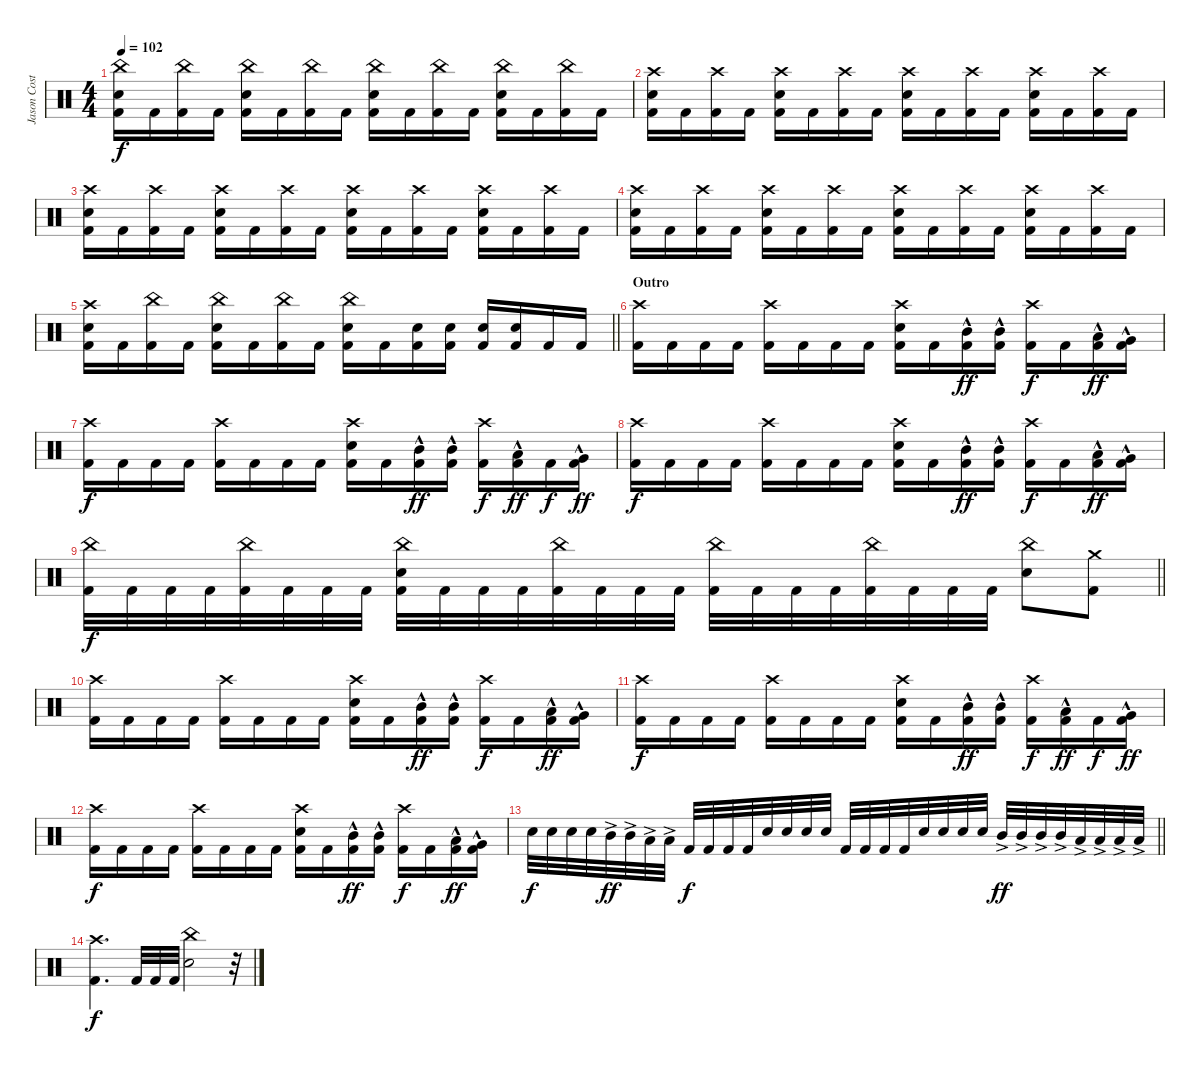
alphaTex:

\track ("Jason Costa" "Jason Cost") {instrument percussion}
\staff {score}
\articulation defaults
\ts (4 4)
\tempo 102
\clef neutral
\ks c
("China (hit)" "Snare (hit) 2" "Kick (hit) 2").16{dy f} "Kick (hit) 2".16 ("China (hit)" "Kick (hit) 2").16 "Kick (hit) 2".16 ("China (hit)" "Snare (hit) 2" "Kick (hit) 2").16 "Kick (hit) 2".16 ("China (hit)" "Kick (hit) 2").16 "Kick (hit) 2".16 ("China (hit)" "Snare (hit) 2" "Kick (hit) 2").16 "Kick (hit) 2".16 ("China (hit)" "Kick (hit) 2").16 "Kick (hit) 2".16 ("China (hit)" "Snare (hit) 2" "Kick (hit) 2").16 "Kick (hit) 2".16 ("China (hit)" "Kick (hit) 2").16 "Kick (hit) 2".16 |
("Crash high (hit)" "Snare (hit) 2" "Kick (hit) 2").16 "Kick (hit) 2".16 ("Crash high (hit)" "Kick (hit) 2").16 "Kick (hit) 2".16 ("Crash high (hit)" "Snare (hit) 2" "Kick (hit) 2").16 "Kick (hit) 2".16 ("Crash high (hit)" "Kick (hit) 2").16 "Kick (hit) 2".16 ("Crash high (hit)" "Snare (hit) 2" "Kick (hit) 2").16 "Kick (hit) 2".16 ("Crash high (hit)" "Kick (hit) 2").16 "Kick (hit) 2".16 ("Crash high (hit)" "Snare (hit) 2" "Kick (hit) 2").16 "Kick (hit) 2".16 ("Crash high (hit)" "Kick (hit) 2").16 "Kick (hit) 2".16 |
("Crash high (hit)" "Snare (hit) 2" "Kick (hit) 2").16 "Kick (hit) 2".16 ("Crash high (hit)" "Kick (hit) 2").16 "Kick (hit) 2".16 ("Crash high (hit)" "Snare (hit) 2" "Kick (hit) 2").16 "Kick (hit) 2".16 ("Crash high (hit)" "Kick (hit) 2").16 "Kick (hit) 2".16 ("Crash high (hit)" "Snare (hit) 2" "Kick (hit) 2").16 "Kick (hit) 2".16 ("Crash high (hit)" "Kick (hit) 2").16 "Kick (hit) 2".16 ("Crash high (hit)" "Snare (hit) 2" "Kick (hit) 2").16 "Kick (hit) 2".16 ("Crash high (hit)" "Kick (hit) 2").16 "Kick (hit) 2".16 |
("Crash high (hit)" "Snare (hit) 2" "Kick (hit) 2").16 "Kick (hit) 2".16 ("Crash high (hit)" "Kick (hit) 2").16 "Kick (hit) 2".16 ("Crash high (hit)" "Snare (hit) 2" "Kick (hit) 2").16 "Kick (hit) 2".16 ("Crash high (hit)" "Kick (hit) 2").16 "Kick (hit) 2".16 ("Crash high (hit)" "Snare (hit) 2" "Kick (hit) 2").16 "Kick (hit) 2".16 ("Crash high (hit)" "Kick (hit) 2").16 "Kick (hit) 2".16 ("Crash high (hit)" "Snare (hit) 2" "Kick (hit) 2").16 "Kick (hit) 2".16 ("Crash high (hit)" "Kick (hit) 2").16 "Kick (hit) 2".16 |
\barLineRight lightlight
("Crash high (hit)" "Snare (hit) 2" "Kick (hit) 2").16 "Kick (hit) 2".16 ("China (hit)" "Kick (hit) 2").16 "Kick (hit) 2".16 ("China (hit)" "Snare (hit) 2" "Kick (hit) 2").16 "Kick (hit) 2".16 ("China (hit)" "Kick (hit) 2").16 "Kick (hit) 2".16 ("China (hit)" "Snare (hit) 2" "Kick (hit) 2").16 "Kick (hit) 2".16 ("Snare (hit) 2" "Kick (hit) 2").16 ("Snare (hit) 2" "Kick (hit) 2").16 ("Snare (hit) 2" "Kick (hit) 2").16 ("Snare (hit) 2" "Kick (hit) 2").16 "Kick (hit) 2".16 "Kick (hit) 2".16 |
\section ("" "Outro")
("Crash high (hit)" "Kick (hit) 2").16 "Kick (hit) 2".16 "Kick (hit) 2".16 "Kick (hit) 2".16 ("Crash high (hit)" "Kick (hit) 2").16 "Kick (hit) 2".16 "Kick (hit) 2".16 "Kick (hit) 2".16 ("Crash high (hit)" "Snare (hit) 2" "Kick (hit) 2").16 "Kick (hit) 2".16 ("Mid Tom (hit)"{hac} "Kick (hit) 2").16{dy ff} ("Mid Tom (hit)"{hac} "Kick (hit) 2").16 ("Crash high (hit)" "Kick (hit) 2").16{dy f} "Kick (hit) 2".16 ("Low Tom (hit)"{hac} "Kick (hit) 2").16{dy ff} ("Very Low Tom (hit)"{hac} "Kick (hit) 2").16 |
("Crash high (hit)" "Kick (hit) 2").16{dy f} "Kick (hit) 2".16 "Kick (hit) 2".16 "Kick (hit) 2".16 ("Crash high (hit)" "Kick (hit) 2").16 "Kick (hit) 2".16 "Kick (hit) 2".16 "Kick (hit) 2".16 ("Crash high (hit)" "Snare (hit) 2" "Kick (hit) 2").16 "Kick (hit) 2".16 ("Mid Tom (hit)"{hac} "Kick (hit) 2").16{dy ff} ("Mid Tom (hit)"{hac} "Kick (hit) 2").16 ("Crash high (hit)" "Kick (hit) 2").16{dy f} ("Low Tom (hit)"{hac} "Kick (hit) 2").16{dy ff} "Kick (hit) 2".16{dy f} ("Very Low Tom (hit)"{hac} "Kick (hit) 2").16{dy ff} |
("Crash high (hit)" "Kick (hit) 2").16{dy f} "Kick (hit) 2".16 "Kick (hit) 2".16 "Kick (hit) 2".16 ("Crash high (hit)" "Kick (hit) 2").16 "Kick (hit) 2".16 "Kick (hit) 2".16 "Kick (hit) 2".16 ("Crash high (hit)" "Snare (hit) 2" "Kick (hit) 2").16 "Kick (hit) 2".16 ("Mid Tom (hit)"{hac} "Kick (hit) 2").16{dy ff} ("Mid Tom (hit)"{hac} "Kick (hit) 2").16 ("Crash high (hit)" "Kick (hit) 2").16{dy f} "Kick (hit) 2".16 ("Low Tom (hit)"{hac} "Kick (hit) 2").16{dy ff} ("Very Low Tom (hit)"{hac} "Kick (hit) 2").16 |
\barLineRight lightlight
("China (hit)" "Kick (hit) 2").32{dy f} "Kick (hit) 2".32 "Kick (hit) 2".32 "Kick (hit) 2".32 ("China (hit)" "Kick (hit) 2").32 "Kick (hit) 2".32 "Kick (hit) 2".32 "Kick (hit) 2".32 ("China (hit)" "Snare (hit) 2" "Kick (hit) 2").32 "Kick (hit) 2".32 "Kick (hit) 2".32 "Kick (hit) 2".32 ("China (hit)" "Kick (hit) 2").32 "Kick (hit) 2".32 "Kick (hit) 2".32 "Kick (hit) 2".32 ("China (hit)" "Kick (hit) 2").32 "Kick (hit) 2".32 "Kick (hit) 2".32 "Kick (hit) 2".32 ("China (hit)" "Kick (hit) 2").32 "Kick (hit) 2".32 "Kick (hit) 2".32 "Kick (hit) 2".32 ("China (hit)" "Snare (hit) 2").8 ("Crash medium (hit)" "Kick (hit) 2").8 |
("Crash high (hit)" "Kick (hit) 2").16 "Kick (hit) 2".16 "Kick (hit) 2".16 "Kick (hit) 2".16 ("Crash high (hit)" "Kick (hit) 2").16 "Kick (hit) 2".16 "Kick (hit) 2".16 "Kick (hit) 2".16 ("Crash high (hit)" "Snare (hit) 2" "Kick (hit) 2").16 "Kick (hit) 2".16 ("Mid Tom (hit)"{hac} "Kick (hit) 2").16{dy ff} ("Mid Tom (hit)"{hac} "Kick (hit) 2").16 ("Crash high (hit)" "Kick (hit) 2").16{dy f} "Kick (hit) 2".16 ("Low Tom (hit)"{hac} "Kick (hit) 2").16{dy ff} ("Very Low Tom (hit)"{hac} "Kick (hit) 2").16 |
("Crash high (hit)" "Kick (hit) 2").16{dy f} "Kick (hit) 2".16 "Kick (hit) 2".16 "Kick (hit) 2".16 ("Crash high (hit)" "Kick (hit) 2").16 "Kick (hit) 2".16 "Kick (hit) 2".16 "Kick (hit) 2".16 ("Crash high (hit)" "Snare (hit) 2" "Kick (hit) 2").16 "Kick (hit) 2".16 ("Mid Tom (hit)"{hac} "Kick (hit) 2").16{dy ff} ("Mid Tom (hit)"{hac} "Kick (hit) 2").16 ("Crash high (hit)" "Kick (hit) 2").16{dy f} ("Low Tom (hit)"{hac} "Kick (hit) 2").16{dy ff} "Kick (hit) 2".16{dy f} ("Very Low Tom (hit)"{hac} "Kick (hit) 2").16{dy ff} |
("Crash high (hit)" "Kick (hit) 2").16{dy f} "Kick (hit) 2".16 "Kick (hit) 2".16 "Kick (hit) 2".16 ("Crash high (hit)" "Kick (hit) 2").16 "Kick (hit) 2".16 "Kick (hit) 2".16 "Kick (hit) 2".16 ("Crash high (hit)" "Snare (hit) 2" "Kick (hit) 2").16 "Kick (hit) 2".16 ("Mid Tom (hit)"{hac} "Kick (hit) 2").16{dy ff} ("Mid Tom (hit)"{hac} "Kick (hit) 2").16 ("Crash high (hit)" "Kick (hit) 2").16{dy f} "Kick (hit) 2".16 ("Low Tom (hit)"{hac} "Kick (hit) 2").16{dy ff} ("Very Low Tom (hit)"{hac} "Kick (hit) 2").16 |
\barLineRight lightlight "Snare (hit) 2".32{dy f} "Snare (hit) 2".32 "Snare (hit) 2".32 "Snare (hit) 2".32 "Mid Tom (hit)"{ac}.32{dy ff} "Mid Tom (hit)"{ac}.32 "Low Tom (hit)"{ac}.32 "Low Tom (hit)"{ac}.32 "Kick (hit) 2".32{dy f} "Kick (hit) 2".32 "Kick (hit) 2".32 "Kick (hit) 2".32 "Snare (hit) 2".32 "Snare (hit) 2".32 "Snare (hit) 2".32 "Snare (hit) 2".32 "Kick (hit) 2".32 "Kick (hit) 2".32 "Kick (hit) 2".32 "Kick (hit) 2".32 "Snare (hit) 2".32 "Snare (hit) 2".32 "Snare (hit) 2".32 "Snare (hit) 2".32 "Mid Tom (hit)"{ac}.32{dy ff} "Mid Tom (hit)"{ac}.32 "Mid Tom (hit)"{ac}.32 "Mid Tom (hit)"{ac}.32 "Low Tom (hit)"{ac}.32 "Low Tom (hit)"{ac}.32 "Low Tom (hit)"{ac}.32 "Low Tom (hit)"{ac}.32
|
("Crash high (hit)" "Kick (hit) 2").4{d dy f} "Kick (hit) 2".32 "Kick (hit) 2".32 "Kick (hit) 2".32 ("China (hit)" "Snare (hit) 2").2 r.32
